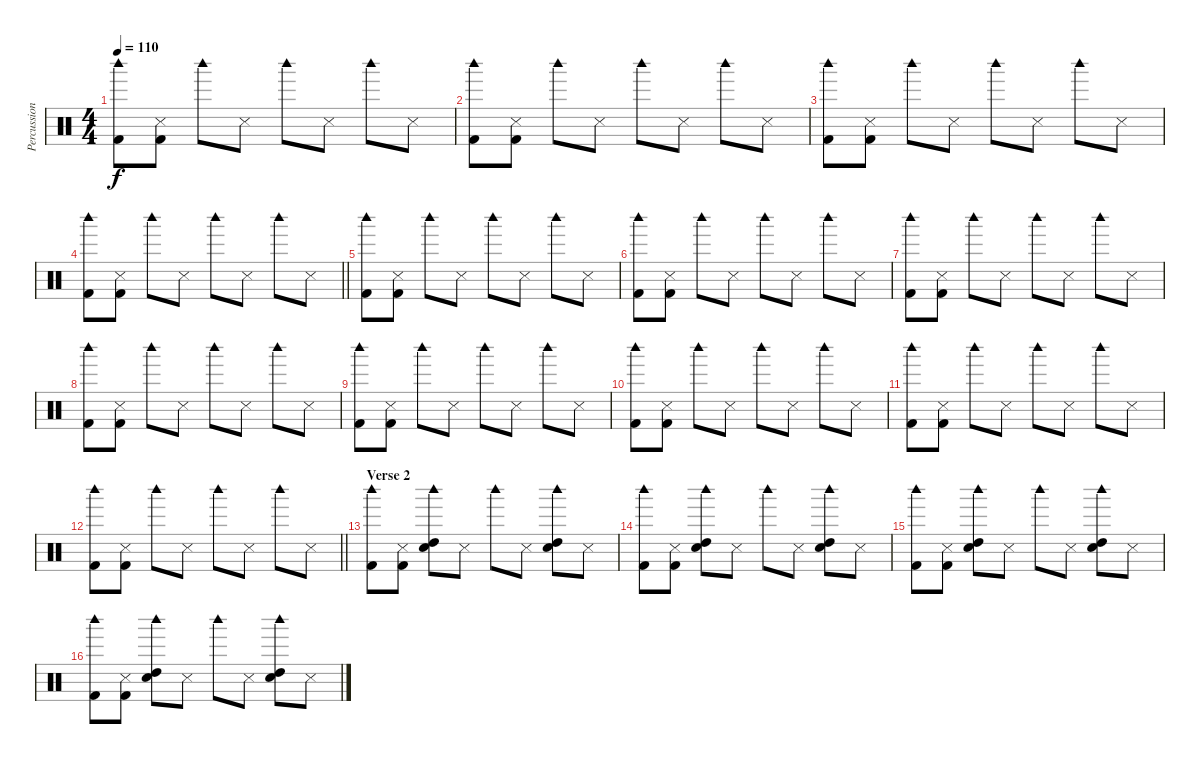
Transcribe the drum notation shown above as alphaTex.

\track ("Percussion" "Percussion") {instrument percussion}
\staff {score}
\articulation defaults
\ts (4 4)
\tempo 110
\clef neutral
\ks c
("Woodblock high (hit)" "Kick (hit) 2").8{dy f} ("Snare (side stick) 3" "Kick (hit) 2").8 "Woodblock high (hit)".8 "Snare (side stick) 3".8 "Woodblock high (hit)".8 "Snare (side stick) 3".8 "Woodblock high (hit)".8 "Snare (side stick) 3".8 |
("Woodblock high (hit)" "Kick (hit) 2").8 ("Snare (side stick) 3" "Kick (hit) 2").8 "Woodblock high (hit)".8 "Snare (side stick) 3".8 "Woodblock high (hit)".8 "Snare (side stick) 3".8 "Woodblock high (hit)".8 "Snare (side stick) 3".8 |
("Woodblock high (hit)" "Kick (hit) 2").8 ("Snare (side stick) 3" "Kick (hit) 2").8 "Woodblock high (hit)".8 "Snare (side stick) 3".8 "Woodblock high (hit)".8 "Snare (side stick) 3".8 "Woodblock high (hit)".8 "Snare (side stick) 3".8 |
\barLineRight lightlight
("Woodblock high (hit)" "Kick (hit) 2").8 ("Snare (side stick) 3" "Kick (hit) 2").8 "Woodblock high (hit)".8 "Snare (side stick) 3".8 "Woodblock high (hit)".8 "Snare (side stick) 3".8 "Woodblock high (hit)".8 "Snare (side stick) 3".8 |
("Woodblock high (hit)" "Kick (hit) 2").8 ("Snare (side stick) 3" "Kick (hit) 2").8 "Woodblock high (hit)".8 "Snare (side stick) 3".8 "Woodblock high (hit)".8 "Snare (side stick) 3".8 "Woodblock high (hit)".8 "Snare (side stick) 3".8 |
("Woodblock high (hit)" "Kick (hit) 2").8 ("Snare (side stick) 3" "Kick (hit) 2").8 "Woodblock high (hit)".8 "Snare (side stick) 3".8 "Woodblock high (hit)".8 "Snare (side stick) 3".8 "Woodblock high (hit)".8 "Snare (side stick) 3".8 |
("Woodblock high (hit)" "Kick (hit) 2").8 ("Snare (side stick) 3" "Kick (hit) 2").8 "Woodblock high (hit)".8 "Snare (side stick) 3".8 "Woodblock high (hit)".8 "Snare (side stick) 3".8 "Woodblock high (hit)".8 "Snare (side stick) 3".8 |
("Woodblock high (hit)" "Kick (hit) 2").8 ("Snare (side stick) 3" "Kick (hit) 2").8 "Woodblock high (hit)".8 "Snare (side stick) 3".8 "Woodblock high (hit)".8 "Snare (side stick) 3".8 "Woodblock high (hit)".8 "Snare (side stick) 3".8 |
("Woodblock high (hit)" "Kick (hit) 2").8 ("Snare (side stick) 3" "Kick (hit) 2").8 "Woodblock high (hit)".8 "Snare (side stick) 3".8 "Woodblock high (hit)".8 "Snare (side stick) 3".8 "Woodblock high (hit)".8 "Snare (side stick) 3".8 |
("Woodblock high (hit)" "Kick (hit) 2").8 ("Snare (side stick) 3" "Kick (hit) 2").8 "Woodblock high (hit)".8 "Snare (side stick) 3".8 "Woodblock high (hit)".8 "Snare (side stick) 3".8 "Woodblock high (hit)".8 "Snare (side stick) 3".8 |
("Woodblock high (hit)" "Kick (hit) 2").8 ("Snare (side stick) 3" "Kick (hit) 2").8 "Woodblock high (hit)".8 "Snare (side stick) 3".8 "Woodblock high (hit)".8 "Snare (side stick) 3".8 "Woodblock high (hit)".8 "Snare (side stick) 3".8 |
\barLineRight lightlight
("Woodblock high (hit)" "Kick (hit) 2").8 ("Snare (side stick) 3" "Kick (hit) 2").8 "Woodblock high (hit)".8 "Snare (side stick) 3".8 "Woodblock high (hit)".8 "Snare (side stick) 3".8 "Woodblock high (hit)".8 "Snare (side stick) 3".8 |
\section ("" "Verse 2")
("Woodblock high (hit)" "Kick (hit) 2").8 ("Snare (side stick) 3" "Kick (hit) 2").8 ("Woodblock high (hit)" "High Tom (hit)" "Snare (hit) 2").8 "Snare (side stick) 3".8 "Woodblock high (hit)".8 "Snare (side stick) 3".8 ("Woodblock high (hit)" "High Tom (hit)" "Snare (hit) 2").8 "Snare (side stick) 3".8 |
("Woodblock high (hit)" "Kick (hit) 2").8 ("Snare (side stick) 3" "Kick (hit) 2").8 ("Woodblock high (hit)" "High Tom (hit)" "Snare (hit) 2").8 "Snare (side stick) 3".8 "Woodblock high (hit)".8 "Snare (side stick) 3".8 ("Woodblock high (hit)" "High Tom (hit)" "Snare (hit) 2").8 "Snare (side stick) 3".8 |
("Woodblock high (hit)" "Kick (hit) 2").8 ("Snare (side stick) 3" "Kick (hit) 2").8 ("Woodblock high (hit)" "High Tom (hit)" "Snare (hit) 2").8 "Snare (side stick) 3".8 "Woodblock high (hit)".8 "Snare (side stick) 3".8 ("Woodblock high (hit)" "High Tom (hit)" "Snare (hit) 2").8 "Snare (side stick) 3".8 |
("Woodblock high (hit)" "Kick (hit) 2").8 ("Snare (side stick) 3" "Kick (hit) 2").8 ("Woodblock high (hit)" "High Tom (hit)" "Snare (hit) 2").8 "Snare (side stick) 3".8 "Woodblock high (hit)".8 "Snare (side stick) 3".8 ("Woodblock high (hit)" "High Tom (hit)" "Snare (hit) 2").8 "Snare (side stick) 3".8
